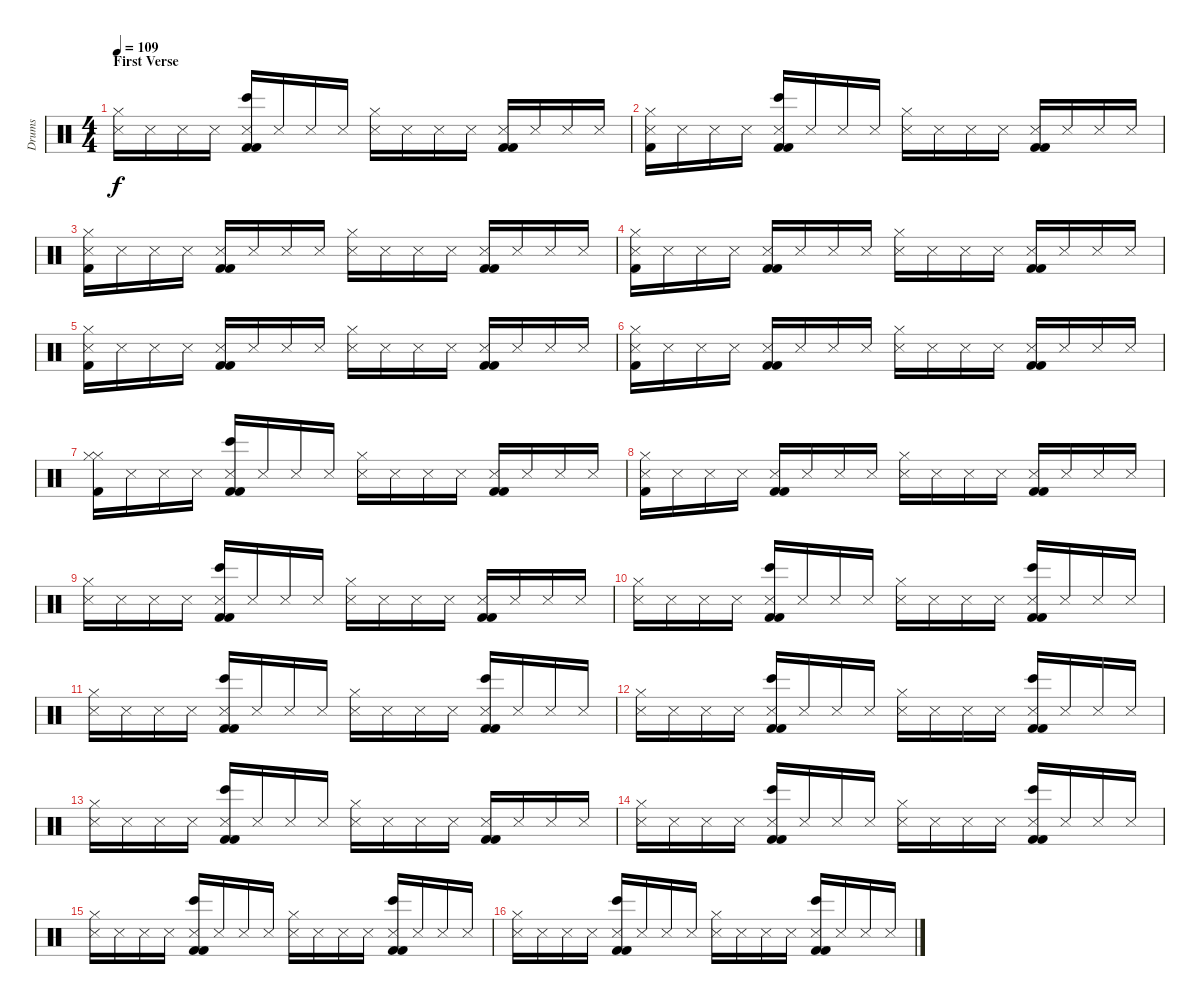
\track ("Drums" "Drums") {instrument percussion}
\staff {score}
\articulation defaults
\ts (4 4)
\section ("" "First Verse")
\tempo 109
\clef neutral
\ks c
("Hi-Hat (closed)" "Snare (side stick) 3").16{dy f} "Snare (side stick) 3".16 "Snare (side stick) 3".16 "Snare (side stick) 3".16 ("Bongo High (hit)" "Snare (side stick) 3" "Kick (hit) 2" "Kick (hit) 2").16 "Snare (side stick) 3".16 "Snare (side stick) 3".16 "Snare (side stick) 3".16 ("Hi-Hat (closed)" "Snare (side stick) 3").16 "Snare (side stick) 3".16 "Snare (side stick) 3".16 "Snare (side stick) 3".16 ("Snare (side stick) 3" "Kick (hit) 2" "Kick (hit) 2").16 "Snare (side stick) 3".16 "Snare (side stick) 3".16 "Snare (side stick) 3".16 |
("Hi-Hat (closed)" "Snare (side stick) 3" "Kick (hit) 2").16 "Snare (side stick) 3".16 "Snare (side stick) 3".16 "Snare (side stick) 3".16 ("Bongo High (hit)" "Snare (side stick) 3" "Kick (hit) 2" "Kick (hit) 2").16 "Snare (side stick) 3".16 "Snare (side stick) 3".16 "Snare (side stick) 3".16 ("Hi-Hat (closed)" "Snare (side stick) 3").16 "Snare (side stick) 3".16 "Snare (side stick) 3".16 "Snare (side stick) 3".16 ("Snare (side stick) 3" "Kick (hit) 2" "Kick (hit) 2").16 "Snare (side stick) 3".16 "Snare (side stick) 3".16 "Snare (side stick) 3".16 |
("Hi-Hat (closed)" "Snare (side stick) 3" "Kick (hit) 2").16 "Snare (side stick) 3".16 "Snare (side stick) 3".16 "Snare (side stick) 3".16 ("Snare (side stick) 3" "Kick (hit) 2" "Kick (hit) 2").16 "Snare (side stick) 3".16 "Snare (side stick) 3".16 "Snare (side stick) 3".16 ("Hi-Hat (closed)" "Snare (side stick) 3").16 "Snare (side stick) 3".16 "Snare (side stick) 3".16 "Snare (side stick) 3".16 ("Snare (side stick) 3" "Kick (hit) 2" "Kick (hit) 2").16 "Snare (side stick) 3".16 "Snare (side stick) 3".16 "Snare (side stick) 3".16 |
("Hi-Hat (closed)" "Snare (side stick) 3" "Kick (hit) 2").16 "Snare (side stick) 3".16 "Snare (side stick) 3".16 "Snare (side stick) 3".16 ("Snare (side stick) 3" "Kick (hit) 2" "Kick (hit) 2").16 "Snare (side stick) 3".16 "Snare (side stick) 3".16 "Snare (side stick) 3".16 ("Hi-Hat (closed)" "Snare (side stick) 3").16 "Snare (side stick) 3".16 "Snare (side stick) 3".16 "Snare (side stick) 3".16 ("Snare (side stick) 3" "Kick (hit) 2" "Kick (hit) 2").16 "Snare (side stick) 3".16 "Snare (side stick) 3".16 "Snare (side stick) 3".16 |
("Hi-Hat (closed)" "Snare (side stick) 3" "Kick (hit) 2").16 "Snare (side stick) 3".16 "Snare (side stick) 3".16 "Snare (side stick) 3".16 ("Snare (side stick) 3" "Kick (hit) 2" "Kick (hit) 2").16 "Snare (side stick) 3".16 "Snare (side stick) 3".16 "Snare (side stick) 3".16 ("Hi-Hat (closed)" "Snare (side stick) 3").16 "Snare (side stick) 3".16 "Snare (side stick) 3".16 "Snare (side stick) 3".16 ("Snare (side stick) 3" "Kick (hit) 2" "Kick (hit) 2").16 "Snare (side stick) 3".16 "Snare (side stick) 3".16 "Snare (side stick) 3".16 |
("Hi-Hat (closed)" "Snare (side stick) 3" "Kick (hit) 2").16 "Snare (side stick) 3".16 "Snare (side stick) 3".16 "Snare (side stick) 3".16 ("Snare (side stick) 3" "Kick (hit) 2" "Kick (hit) 2").16 "Snare (side stick) 3".16 "Snare (side stick) 3".16 "Snare (side stick) 3".16 ("Hi-Hat (closed)" "Snare (side stick) 3").16 "Snare (side stick) 3".16 "Snare (side stick) 3".16 "Snare (side stick) 3".16 ("Snare (side stick) 3" "Kick (hit) 2" "Kick (hit) 2").16 "Snare (side stick) 3".16 "Snare (side stick) 3".16 "Snare (side stick) 3".16 |
("Hi-Hat (closed)" "Hi-Hat (closed)" "Kick (hit) 2").16 "Snare (side stick) 3".16 "Snare (side stick) 3".16 "Snare (side stick) 3".16 ("Bongo High (hit)" "Snare (side stick) 3" "Kick (hit) 2" "Kick (hit) 2").16 "Snare (side stick) 3".16 "Snare (side stick) 3".16 "Snare (side stick) 3".16 ("Hi-Hat (closed)" "Snare (side stick) 3").16 "Snare (side stick) 3".16 "Snare (side stick) 3".16 "Snare (side stick) 3".16 ("Snare (side stick) 3" "Kick (hit) 2" "Kick (hit) 2").16 "Snare (side stick) 3".16 "Snare (side stick) 3".16 "Snare (side stick) 3".16 |
("Hi-Hat (closed)" "Snare (side stick) 3" "Kick (hit) 2").16 "Snare (side stick) 3".16 "Snare (side stick) 3".16 "Snare (side stick) 3".16 ("Snare (side stick) 3" "Kick (hit) 2" "Kick (hit) 2").16 "Snare (side stick) 3".16 "Snare (side stick) 3".16 "Snare (side stick) 3".16 ("Hi-Hat (closed)" "Snare (side stick) 3").16 "Snare (side stick) 3".16 "Snare (side stick) 3".16 "Snare (side stick) 3".16 ("Snare (side stick) 3" "Kick (hit) 2" "Kick (hit) 2").16 "Snare (side stick) 3".16 "Snare (side stick) 3".16 "Snare (side stick) 3".16 |
("Hi-Hat (closed)" "Snare (side stick) 3").16 "Snare (side stick) 3".16 "Snare (side stick) 3".16 "Snare (side stick) 3".16 ("Bongo High (hit)" "Snare (side stick) 3" "Kick (hit) 2" "Kick (hit) 2").16 "Snare (side stick) 3".16 "Snare (side stick) 3".16 "Snare (side stick) 3".16 ("Hi-Hat (closed)" "Snare (side stick) 3").16 "Snare (side stick) 3".16 "Snare (side stick) 3".16 "Snare (side stick) 3".16 ("Snare (side stick) 3" "Kick (hit) 2" "Kick (hit) 2").16 "Snare (side stick) 3".16 "Snare (side stick) 3".16 "Snare (side stick) 3".16 |
("Hi-Hat (closed)" "Snare (side stick) 3").16 "Snare (side stick) 3".16 "Snare (side stick) 3".16 "Snare (side stick) 3".16 ("Bongo High (hit)" "Snare (side stick) 3" "Kick (hit) 2" "Kick (hit) 2").16 "Snare (side stick) 3".16 "Snare (side stick) 3".16 "Snare (side stick) 3".16 ("Hi-Hat (closed)" "Snare (side stick) 3").16 "Snare (side stick) 3".16 "Snare (side stick) 3".16 "Snare (side stick) 3".16 ("Bongo High (hit)" "Snare (side stick) 3" "Kick (hit) 2" "Kick (hit) 2").16 "Snare (side stick) 3".16 "Snare (side stick) 3".16 "Snare (side stick) 3".16 |
("Hi-Hat (closed)" "Snare (side stick) 3").16 "Snare (side stick) 3".16 "Snare (side stick) 3".16 "Snare (side stick) 3".16 ("Bongo High (hit)" "Snare (side stick) 3" "Kick (hit) 2" "Kick (hit) 2").16 "Snare (side stick) 3".16 "Snare (side stick) 3".16 "Snare (side stick) 3".16 ("Hi-Hat (closed)" "Snare (side stick) 3").16 "Snare (side stick) 3".16 "Snare (side stick) 3".16 "Snare (side stick) 3".16 ("Bongo High (hit)" "Snare (side stick) 3" "Kick (hit) 2" "Kick (hit) 2").16 "Snare (side stick) 3".16 "Snare (side stick) 3".16 "Snare (side stick) 3".16 |
("Hi-Hat (closed)" "Snare (side stick) 3").16 "Snare (side stick) 3".16 "Snare (side stick) 3".16 "Snare (side stick) 3".16 ("Bongo High (hit)" "Snare (side stick) 3" "Kick (hit) 2" "Kick (hit) 2").16 "Snare (side stick) 3".16 "Snare (side stick) 3".16 "Snare (side stick) 3".16 ("Hi-Hat (closed)" "Snare (side stick) 3").16 "Snare (side stick) 3".16 "Snare (side stick) 3".16 "Snare (side stick) 3".16 ("Bongo High (hit)" "Snare (side stick) 3" "Kick (hit) 2" "Kick (hit) 2").16 "Snare (side stick) 3".16 "Snare (side stick) 3".16 "Snare (side stick) 3".16 |
("Hi-Hat (closed)" "Snare (side stick) 3").16 "Snare (side stick) 3".16 "Snare (side stick) 3".16 "Snare (side stick) 3".16 ("Bongo High (hit)" "Snare (side stick) 3" "Kick (hit) 2" "Kick (hit) 2").16 "Snare (side stick) 3".16 "Snare (side stick) 3".16 "Snare (side stick) 3".16 ("Hi-Hat (closed)" "Snare (side stick) 3").16 "Snare (side stick) 3".16 "Snare (side stick) 3".16 "Snare (side stick) 3".16 ("Snare (side stick) 3" "Kick (hit) 2" "Kick (hit) 2").16 "Snare (side stick) 3".16 "Snare (side stick) 3".16 "Snare (side stick) 3".16 |
("Hi-Hat (closed)" "Snare (side stick) 3").16 "Snare (side stick) 3".16 "Snare (side stick) 3".16 "Snare (side stick) 3".16 ("Bongo High (hit)" "Snare (side stick) 3" "Kick (hit) 2" "Kick (hit) 2").16 "Snare (side stick) 3".16 "Snare (side stick) 3".16 "Snare (side stick) 3".16 ("Hi-Hat (closed)" "Snare (side stick) 3").16 "Snare (side stick) 3".16 "Snare (side stick) 3".16 "Snare (side stick) 3".16 ("Bongo High (hit)" "Snare (side stick) 3" "Kick (hit) 2" "Kick (hit) 2").16 "Snare (side stick) 3".16 "Snare (side stick) 3".16 "Snare (side stick) 3".16 |
("Hi-Hat (closed)" "Snare (side stick) 3").16 "Snare (side stick) 3".16 "Snare (side stick) 3".16 "Snare (side stick) 3".16 ("Bongo High (hit)" "Snare (side stick) 3" "Kick (hit) 2" "Kick (hit) 2").16 "Snare (side stick) 3".16 "Snare (side stick) 3".16 "Snare (side stick) 3".16 ("Hi-Hat (closed)" "Snare (side stick) 3").16 "Snare (side stick) 3".16 "Snare (side stick) 3".16 "Snare (side stick) 3".16 ("Bongo High (hit)" "Snare (side stick) 3" "Kick (hit) 2" "Kick (hit) 2").16 "Snare (side stick) 3".16 "Snare (side stick) 3".16 "Snare (side stick) 3".16 |
("Hi-Hat (closed)" "Snare (side stick) 3").16 "Snare (side stick) 3".16 "Snare (side stick) 3".16 "Snare (side stick) 3".16 ("Bongo High (hit)" "Snare (side stick) 3" "Kick (hit) 2" "Kick (hit) 2").16 "Snare (side stick) 3".16 "Snare (side stick) 3".16 "Snare (side stick) 3".16 ("Hi-Hat (closed)" "Snare (side stick) 3").16 "Snare (side stick) 3".16 "Snare (side stick) 3".16 "Snare (side stick) 3".16 ("Bongo High (hit)" "Snare (side stick) 3" "Kick (hit) 2" "Kick (hit) 2").16 "Snare (side stick) 3".16 "Snare (side stick) 3".16 "Snare (side stick) 3".16
